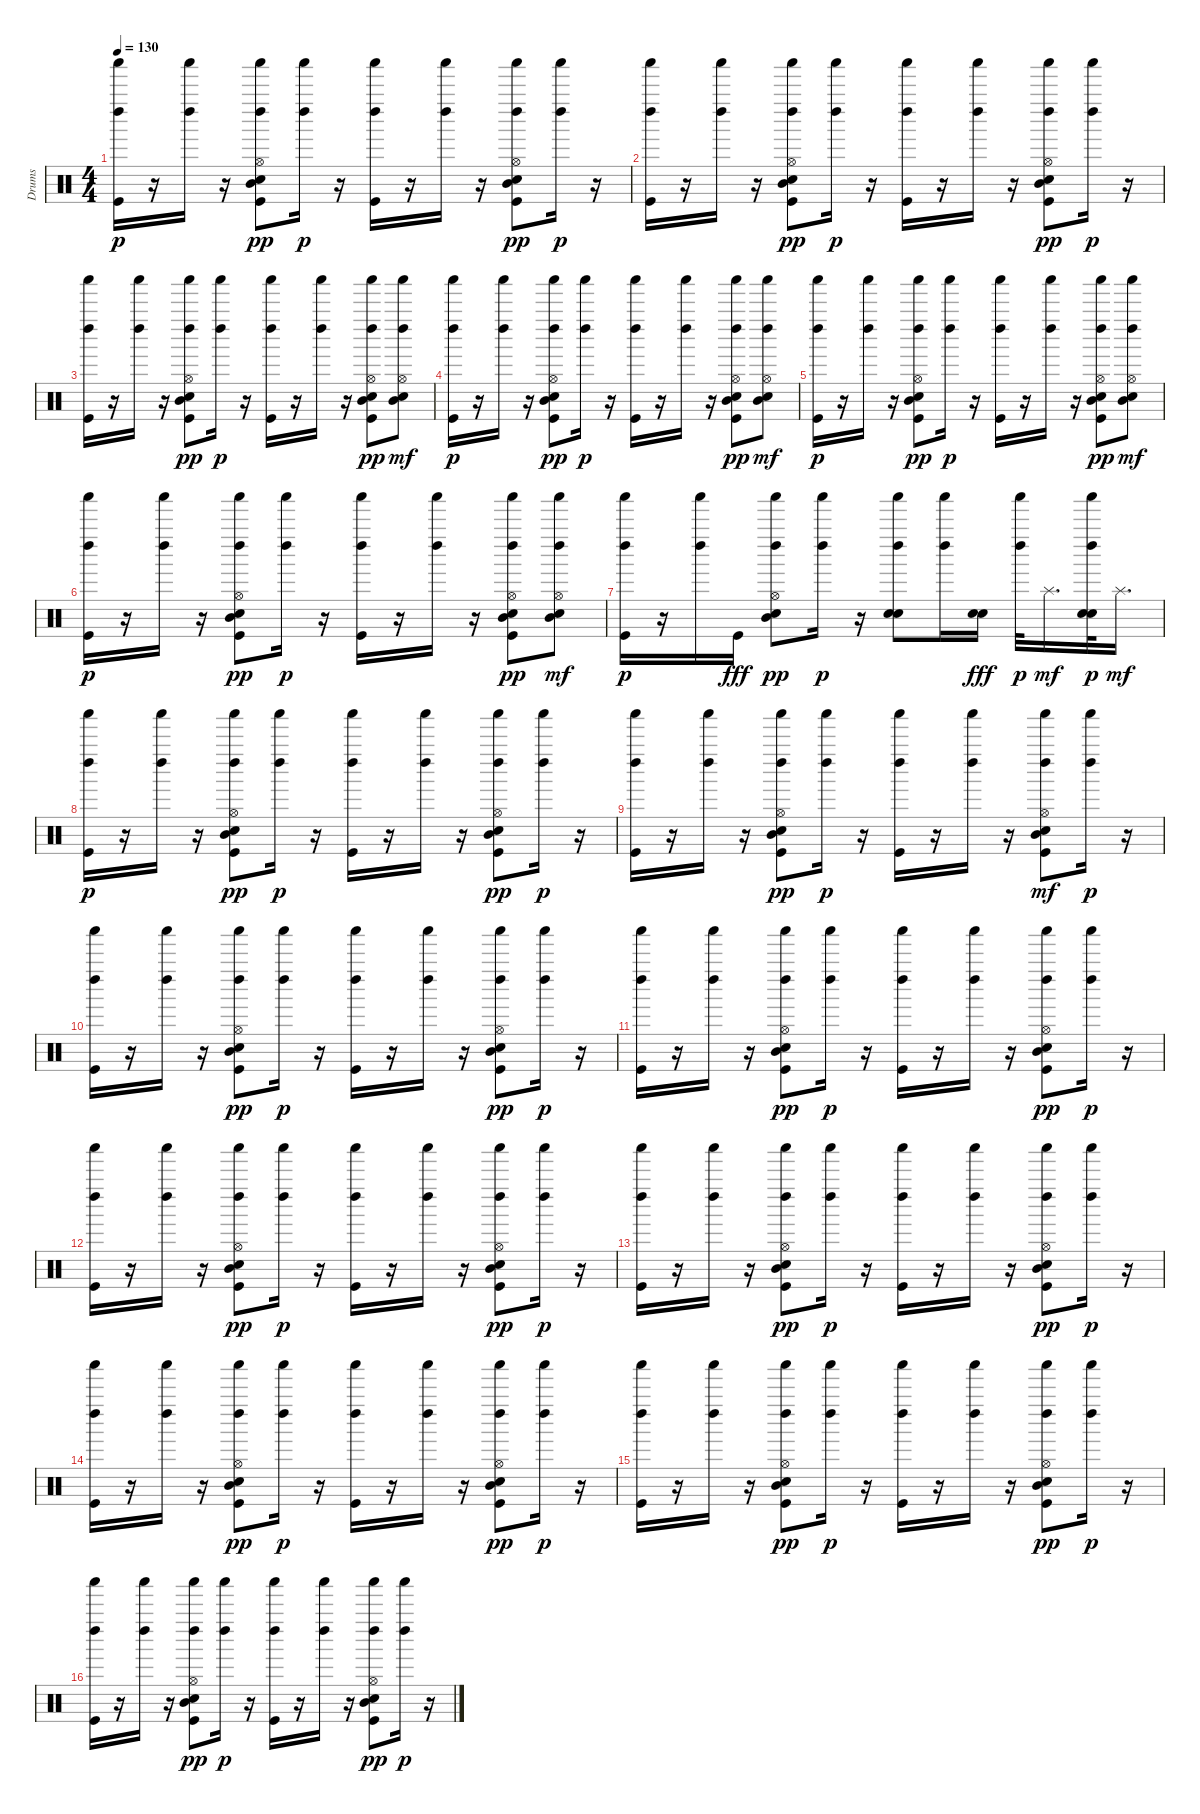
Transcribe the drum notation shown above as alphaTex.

\track ("Drums" "Drums") {instrument percussion}
\staff {score}
\articulation defaults
\ts (4 4)
\tempo 130
\clef neutral
\ks c
("Kick (hit)" "Shaker (hit)" "Left Maraca (hit)").16{dy p} r.16 ("Shaker (hit)" "Left Maraca (hit)").16 r.16 ("Snare (hit) 2" "Kick (hit)" "Shaker (hit)" "Left Maraca (hit)" "Mid Tom (hit)" "Hi-Hat (open)").8{dy pp} ("Shaker (hit)" "Left Maraca (hit)").16{dy p} r.16 ("Kick (hit)" "Shaker (hit)" "Left Maraca (hit)").16 r.16 ("Shaker (hit)" "Left Maraca (hit)").16 r.16 ("Snare (hit) 2" "Kick (hit)" "Shaker (hit)" "Left Maraca (hit)" "Mid Tom (hit)" "Hi-Hat (open)").8{dy pp} ("Shaker (hit)" "Left Maraca (hit)").16{dy p} r.16 |
("Kick (hit)" "Shaker (hit)" "Left Maraca (hit)").16 r.16 ("Shaker (hit)" "Left Maraca (hit)").16 r.16 ("Snare (hit) 2" "Kick (hit)" "Shaker (hit)" "Left Maraca (hit)" "Mid Tom (hit)" "Hi-Hat (open)").8{dy pp} ("Shaker (hit)" "Left Maraca (hit)").16{dy p} r.16 ("Kick (hit)" "Shaker (hit)" "Left Maraca (hit)").16 r.16 ("Shaker (hit)" "Left Maraca (hit)").16 r.16 ("Snare (hit) 2" "Kick (hit)" "Shaker (hit)" "Left Maraca (hit)" "Mid Tom (hit)" "Hi-Hat (open)").8{dy pp} ("Shaker (hit)" "Left Maraca (hit)").16{dy p} r.16 |
("Kick (hit)" "Shaker (hit)" "Left Maraca (hit)").16 r.16 ("Shaker (hit)" "Left Maraca (hit)").16 r.16 ("Snare (hit) 2" "Kick (hit)" "Shaker (hit)" "Left Maraca (hit)" "Mid Tom (hit)" "Hi-Hat (open)").8{dy pp} ("Shaker (hit)" "Left Maraca (hit)").16{dy p} r.16 ("Kick (hit)" "Shaker (hit)" "Left Maraca (hit)").16 r.16 ("Shaker (hit)" "Left Maraca (hit)").16 r.16 ("Snare (hit) 2" "Kick (hit)" "Shaker (hit)" "Left Maraca (hit)" "Mid Tom (hit)" "Hi-Hat (open)").8{dy pp} ("Snare (hit) 2" "Shaker (hit)" "Left Maraca (hit)" "Mid Tom (hit)" "Hi-Hat (open)").8{dy mf} |
("Kick (hit)" "Shaker (hit)" "Left Maraca (hit)").16{dy p} r.16 ("Shaker (hit)" "Left Maraca (hit)").16 r.16 ("Snare (hit) 2" "Kick (hit)" "Shaker (hit)" "Left Maraca (hit)" "Mid Tom (hit)" "Hi-Hat (open)").8{dy pp} ("Shaker (hit)" "Left Maraca (hit)").16{dy p} r.16 ("Kick (hit)" "Shaker (hit)" "Left Maraca (hit)").16 r.16 ("Shaker (hit)" "Left Maraca (hit)").16 r.16 ("Snare (hit) 2" "Kick (hit)" "Shaker (hit)" "Left Maraca (hit)" "Mid Tom (hit)" "Hi-Hat (open)").8{dy pp} ("Snare (hit) 2" "Shaker (hit)" "Left Maraca (hit)" "Mid Tom (hit)" "Hi-Hat (open)").8{dy mf} |
("Kick (hit)" "Shaker (hit)" "Left Maraca (hit)").16{dy p} r.16 ("Shaker (hit)" "Left Maraca (hit)").16 r.16 ("Snare (hit) 2" "Kick (hit)" "Shaker (hit)" "Left Maraca (hit)" "Mid Tom (hit)" "Hi-Hat (open)").8{dy pp} ("Shaker (hit)" "Left Maraca (hit)").16{dy p} r.16 ("Kick (hit)" "Shaker (hit)" "Left Maraca (hit)").16 r.16 ("Shaker (hit)" "Left Maraca (hit)").16 r.16 ("Snare (hit) 2" "Kick (hit)" "Shaker (hit)" "Left Maraca (hit)" "Mid Tom (hit)" "Hi-Hat (open)").8{dy pp} ("Snare (hit) 2" "Shaker (hit)" "Left Maraca (hit)" "Mid Tom (hit)" "Hi-Hat (open)").8{dy mf} |
("Kick (hit)" "Shaker (hit)" "Left Maraca (hit)").16{dy p} r.16 ("Shaker (hit)" "Left Maraca (hit)").16 r.16 ("Snare (hit) 2" "Kick (hit)" "Shaker (hit)" "Left Maraca (hit)" "Mid Tom (hit)" "Hi-Hat (open)").8{dy pp} ("Shaker (hit)" "Left Maraca (hit)").16{dy p} r.16 ("Kick (hit)" "Shaker (hit)" "Left Maraca (hit)").16 r.16 ("Shaker (hit)" "Left Maraca (hit)").16 r.16 ("Snare (hit) 2" "Kick (hit)" "Shaker (hit)" "Left Maraca (hit)" "Mid Tom (hit)" "Hi-Hat (open)").8{dy pp} ("Snare (hit) 2" "Shaker (hit)" "Left Maraca (hit)" "Mid Tom (hit)" "Hi-Hat (open)").8{dy mf} |
("Kick (hit)" "Shaker (hit)" "Left Maraca (hit)").16{dy p} r.16 ("Shaker (hit)" "Left Maraca (hit)").16 "Kick (hit)".16{dy fff} ("Snare (hit) 2" "Shaker (hit)" "Left Maraca (hit)" "Mid Tom (hit)" "Hi-Hat (open)").8{dy pp} ("Shaker (hit)" "Left Maraca (hit)").16{dy p} r.16 ("Snare (hit) 2" "Snare (hit) 2" "Shaker (hit)" "Left Maraca (hit)").8 ("Shaker (hit)" "Left Maraca (hit)").16 ("Snare (hit) 2" "Snare (hit) 2").16{dy fff} ("Shaker (hit)" "Left Maraca (hit)").32{dy p} "Splash (hit)".16{d dy mf} ("Snare (hit) 2" "Snare (hit) 2" "Shaker (hit)" "Left Maraca (hit)").32{dy p} "Splash (hit)".16{d dy mf} |
("Kick (hit)" "Shaker (hit)" "Left Maraca (hit)").16{dy p} r.16 ("Shaker (hit)" "Left Maraca (hit)").16 r.16 ("Snare (hit) 2" "Kick (hit)" "Shaker (hit)" "Left Maraca (hit)" "Mid Tom (hit)" "Hi-Hat (open)").8{dy pp} ("Shaker (hit)" "Left Maraca (hit)").16{dy p} r.16 ("Kick (hit)" "Shaker (hit)" "Left Maraca (hit)").16 r.16 ("Shaker (hit)" "Left Maraca (hit)").16 r.16 ("Snare (hit) 2" "Kick (hit)" "Shaker (hit)" "Left Maraca (hit)" "Mid Tom (hit)" "Hi-Hat (open)").8{dy pp} ("Shaker (hit)" "Left Maraca (hit)").16{dy p} r.16 |
("Kick (hit)" "Shaker (hit)" "Left Maraca (hit)").16 r.16 ("Shaker (hit)" "Left Maraca (hit)").16 r.16 ("Snare (hit) 2" "Kick (hit)" "Shaker (hit)" "Left Maraca (hit)" "Mid Tom (hit)" "Hi-Hat (open)").8{dy pp} ("Shaker (hit)" "Left Maraca (hit)").16{dy p} r.16 ("Kick (hit)" "Shaker (hit)" "Left Maraca (hit)").16 r.16 ("Shaker (hit)" "Left Maraca (hit)").16 r.16 ("Snare (hit) 2" "Kick (hit)" "Shaker (hit)" "Left Maraca (hit)" "Mid Tom (hit)" "Hi-Hat (open)").8{dy mf} ("Shaker (hit)" "Left Maraca (hit)").16{dy p} r.16 |
("Kick (hit)" "Shaker (hit)" "Left Maraca (hit)").16 r.16 ("Shaker (hit)" "Left Maraca (hit)").16 r.16 ("Snare (hit) 2" "Kick (hit)" "Shaker (hit)" "Left Maraca (hit)" "Mid Tom (hit)" "Hi-Hat (open)").8{dy pp} ("Shaker (hit)" "Left Maraca (hit)").16{dy p} r.16 ("Kick (hit)" "Shaker (hit)" "Left Maraca (hit)").16 r.16 ("Shaker (hit)" "Left Maraca (hit)").16 r.16 ("Snare (hit) 2" "Kick (hit)" "Shaker (hit)" "Left Maraca (hit)" "Mid Tom (hit)" "Hi-Hat (open)").8{dy pp} ("Shaker (hit)" "Left Maraca (hit)").16{dy p} r.16 |
("Kick (hit)" "Shaker (hit)" "Left Maraca (hit)").16 r.16 ("Shaker (hit)" "Left Maraca (hit)").16 r.16 ("Snare (hit) 2" "Kick (hit)" "Shaker (hit)" "Left Maraca (hit)" "Mid Tom (hit)" "Hi-Hat (open)").8{dy pp} ("Shaker (hit)" "Left Maraca (hit)").16{dy p} r.16 ("Kick (hit)" "Shaker (hit)" "Left Maraca (hit)").16 r.16 ("Shaker (hit)" "Left Maraca (hit)").16 r.16 ("Snare (hit) 2" "Kick (hit)" "Shaker (hit)" "Left Maraca (hit)" "Mid Tom (hit)" "Hi-Hat (open)").8{dy pp} ("Shaker (hit)" "Left Maraca (hit)").16{dy p} r.16 |
("Kick (hit)" "Shaker (hit)" "Left Maraca (hit)").16 r.16 ("Shaker (hit)" "Left Maraca (hit)").16 r.16 ("Snare (hit) 2" "Kick (hit)" "Shaker (hit)" "Left Maraca (hit)" "Mid Tom (hit)" "Hi-Hat (open)").8{dy pp} ("Shaker (hit)" "Left Maraca (hit)").16{dy p} r.16 ("Kick (hit)" "Shaker (hit)" "Left Maraca (hit)").16 r.16 ("Shaker (hit)" "Left Maraca (hit)").16 r.16 ("Snare (hit) 2" "Kick (hit)" "Shaker (hit)" "Left Maraca (hit)" "Mid Tom (hit)" "Hi-Hat (open)").8{dy pp} ("Shaker (hit)" "Left Maraca (hit)").16{dy p} r.16 |
("Kick (hit)" "Shaker (hit)" "Left Maraca (hit)").16 r.16 ("Shaker (hit)" "Left Maraca (hit)").16 r.16 ("Snare (hit) 2" "Kick (hit)" "Shaker (hit)" "Left Maraca (hit)" "Mid Tom (hit)" "Hi-Hat (open)").8{dy pp} ("Shaker (hit)" "Left Maraca (hit)").16{dy p} r.16 ("Kick (hit)" "Shaker (hit)" "Left Maraca (hit)").16 r.16 ("Shaker (hit)" "Left Maraca (hit)").16 r.16 ("Snare (hit) 2" "Kick (hit)" "Shaker (hit)" "Left Maraca (hit)" "Mid Tom (hit)" "Hi-Hat (open)").8{dy pp} ("Shaker (hit)" "Left Maraca (hit)").16{dy p} r.16 |
("Kick (hit)" "Shaker (hit)" "Left Maraca (hit)").16 r.16 ("Shaker (hit)" "Left Maraca (hit)").16 r.16 ("Snare (hit) 2" "Kick (hit)" "Shaker (hit)" "Left Maraca (hit)" "Mid Tom (hit)" "Hi-Hat (open)").8{dy pp} ("Shaker (hit)" "Left Maraca (hit)").16{dy p} r.16 ("Kick (hit)" "Shaker (hit)" "Left Maraca (hit)").16 r.16 ("Shaker (hit)" "Left Maraca (hit)").16 r.16 ("Snare (hit) 2" "Kick (hit)" "Shaker (hit)" "Left Maraca (hit)" "Mid Tom (hit)" "Hi-Hat (open)").8{dy pp} ("Shaker (hit)" "Left Maraca (hit)").16{dy p} r.16 |
("Kick (hit)" "Shaker (hit)" "Left Maraca (hit)").16 r.16 ("Shaker (hit)" "Left Maraca (hit)").16 r.16 ("Snare (hit) 2" "Kick (hit)" "Shaker (hit)" "Left Maraca (hit)" "Mid Tom (hit)" "Hi-Hat (open)").8{dy pp} ("Shaker (hit)" "Left Maraca (hit)").16{dy p} r.16 ("Kick (hit)" "Shaker (hit)" "Left Maraca (hit)").16 r.16 ("Shaker (hit)" "Left Maraca (hit)").16 r.16 ("Snare (hit) 2" "Kick (hit)" "Shaker (hit)" "Left Maraca (hit)" "Mid Tom (hit)" "Hi-Hat (open)").8{dy pp} ("Shaker (hit)" "Left Maraca (hit)").16{dy p} r.16 |
("Kick (hit)" "Shaker (hit)" "Left Maraca (hit)").16 r.16 ("Shaker (hit)" "Left Maraca (hit)").16 r.16 ("Snare (hit) 2" "Kick (hit)" "Shaker (hit)" "Left Maraca (hit)" "Mid Tom (hit)" "Hi-Hat (open)").8{dy pp} ("Shaker (hit)" "Left Maraca (hit)").16{dy p} r.16 ("Kick (hit)" "Shaker (hit)" "Left Maraca (hit)").16 r.16 ("Shaker (hit)" "Left Maraca (hit)").16 r.16 ("Snare (hit) 2" "Kick (hit)" "Shaker (hit)" "Left Maraca (hit)" "Mid Tom (hit)" "Hi-Hat (open)").8{dy pp} ("Shaker (hit)" "Left Maraca (hit)").16{dy p} r.16
